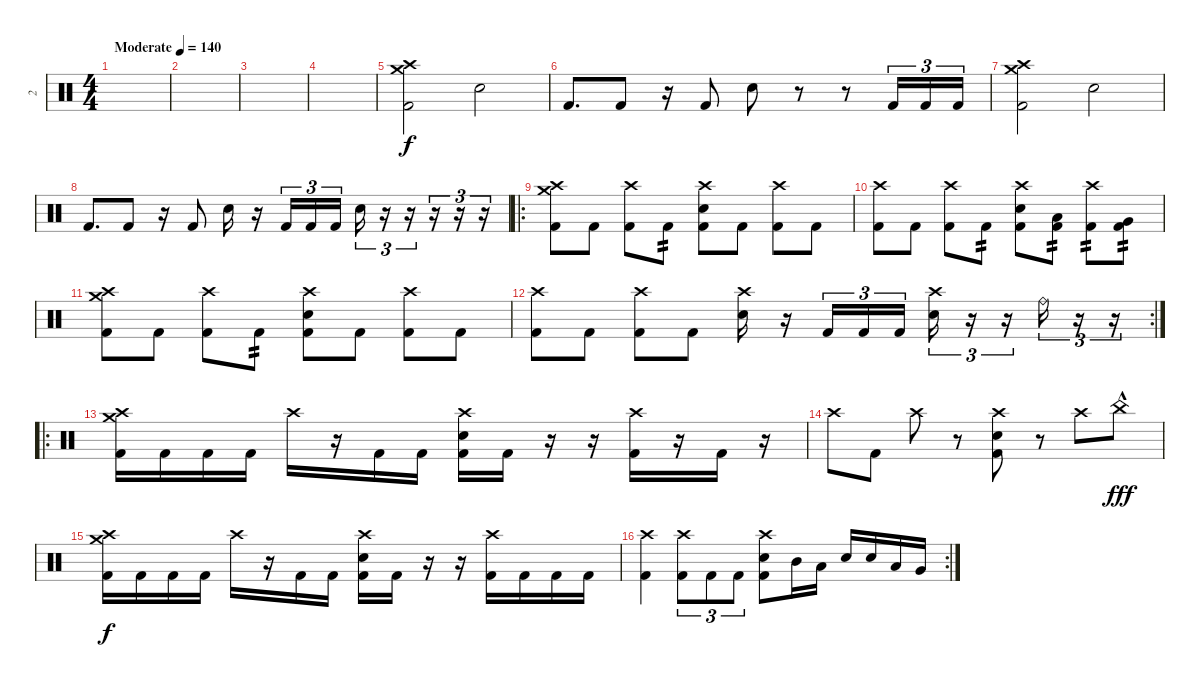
\track ("2" "2") {instrument percussion}
\staff {score}
\articulation defaults
\ts (4 4)
\tempo (140 "Moderate")
\clef neutral
\ks c
|
|
|
|
("Crash medium (hit)" "Crash high (hit)" "Kick (hit) 2").2 "Snare (hit) 2".2 |
"Kick (hit) 2".8{d} "Kick (hit) 2".8 r.16 "Kick (hit) 2".8 "Snare (hit) 2".8 r.8 r.8 "Kick (hit) 2".16{tu (3 2)} "Kick (hit) 2".16{tu (3 2)} "Kick (hit) 2".16{tu (3 2)} |
("Crash high (hit)" "Crash medium (hit)" "Kick (hit) 2").2 "Snare (hit) 2".2 |
"Kick (hit) 2".8{d} "Kick (hit) 2".8 r.16 "Kick (hit) 2".8 "Snare (hit) 2".16 r.16 "Kick (hit) 2".16{tu (3 2)} "Kick (hit) 2".16{tu (3 2)} "Kick (hit) 2".16{tu (3 2)} "Electric Snare (hit)".16{tu (3 2)} r.16{tu (3 2)} r.16{tu (3 2)} r.16{tu (3 2)} r.16{tu (3 2)} r.16{tu (3 2)} |
\ro
("Crash medium (hit)" "Crash high (hit)" "Kick (hit) 2").8 "Kick (hit) 2".8 ("Crash high (hit)" "Kick (hit) 2").8 "Kick (hit) 2".8{tp 2} ("Crash high (hit)" "Snare (hit) 2" "Kick (hit) 2").8 "Kick (hit) 2".8 ("Crash high (hit)" "Kick (hit) 2").8 "Kick (hit) 2".8 |
("Crash high (hit)" "Kick (hit) 2").8 "Kick (hit) 2".8 ("Crash high (hit)" "Kick (hit) 2").8 "Kick (hit) 2".8{tp 2} ("Crash high (hit)" "Snare (hit) 2" "Kick (hit) 2").8 ("Low Floor Tom (hit)" "Kick (hit) 2").8{tp 2} ("Crash high (hit)" "Kick (hit) 2").8{tp 2} ("Very Low Tom (hit)" "Kick (hit) 2").8{tp 2} |
("Crash medium (hit)" "Crash high (hit)" "Kick (hit) 2").8 "Kick (hit) 2".8 ("Crash high (hit)" "Kick (hit) 2").8 "Kick (hit) 2".8{tp 2} ("Crash high (hit)" "Snare (hit) 2" "Kick (hit) 2").8 "Kick (hit) 2".8 ("Crash high (hit)" "Kick (hit) 2").8 "Kick (hit) 2".8 |
\rc 2
("Crash high (hit)" "Kick (hit) 2").8 "Kick (hit) 2".8 ("Crash high (hit)" "Kick (hit) 2").8 "Kick (hit) 2".8 ("Crash high (hit)" "Snare (hit) 2").16 r.16 "Kick (hit) 2".16{tu (3 2)} "Kick (hit) 2".16{tu (3 2)} "Kick (hit) 2".16{tu (3 2)} ("Crash high (hit)" "Snare (hit) 2").16{tu (3 2)} r.16{tu (3 2)} r.16{tu (3 2)} "Ride (bell)".16{tu (3 2)} r.16{tu (3 2)} r.16{tu (3 2)} |
\ro
("Crash high (hit)" "Crash medium (hit)" "Kick (hit) 2").16 "Kick (hit) 2".16 "Kick (hit) 2".16 "Kick (hit) 2".16 "Crash high (hit)".16 r.16 "Kick (hit) 2".16 "Kick (hit) 2".16 ("Snare (hit) 2" "Crash high (hit)" "Kick (hit) 2").16 "Kick (hit) 2".16 r.16 r.16 ("Crash high (hit)" "Kick (hit) 2").16 r.16 "Kick (hit) 2".16 r.16 |
"Crash high (hit)".8 "Kick (hit) 2".8 "Crash high (hit)".8 r.8 ("Snare (hit) 2" "Crash high (hit)" "Kick (hit) 2").8 r.8 "Crash high (hit)".8 "China (hit)"{hac}.8{dy fff} |
("Crash high (hit)" "Crash medium (hit)" "Kick (hit) 2").16{dy f} "Kick (hit) 2".16 "Kick (hit) 2".16 "Kick (hit) 2".16 "Crash high (hit)".16 r.16 "Kick (hit) 2".16 "Kick (hit) 2".16 ("Crash high (hit)" "Snare (hit) 2" "Kick (hit) 2").16 "Kick (hit) 2".16 r.16 r.16 ("Crash high (hit)" "Kick (hit) 2").16 "Kick (hit) 2".16 "Kick (hit) 2".16 "Kick (hit) 2".16 |
\rc 2
("Crash high (hit)" "Kick (hit) 2").4 ("Crash high (hit)" "Kick (hit) 2").8{tu (3 2)} "Kick (hit) 2".8{tu (3 2)} "Kick (hit) 2".8{tu (3 2)} ("Electric Snare (hit)" "Crash high (hit)" "Kick (hit) 2").8 "Mid Tom (hit)".16 "Low Tom (hit)".16 "Electric Snare (hit)".16 "Electric Snare (hit)".16 "Low Floor Tom (hit)".16 "Very Low Tom (hit)".16
